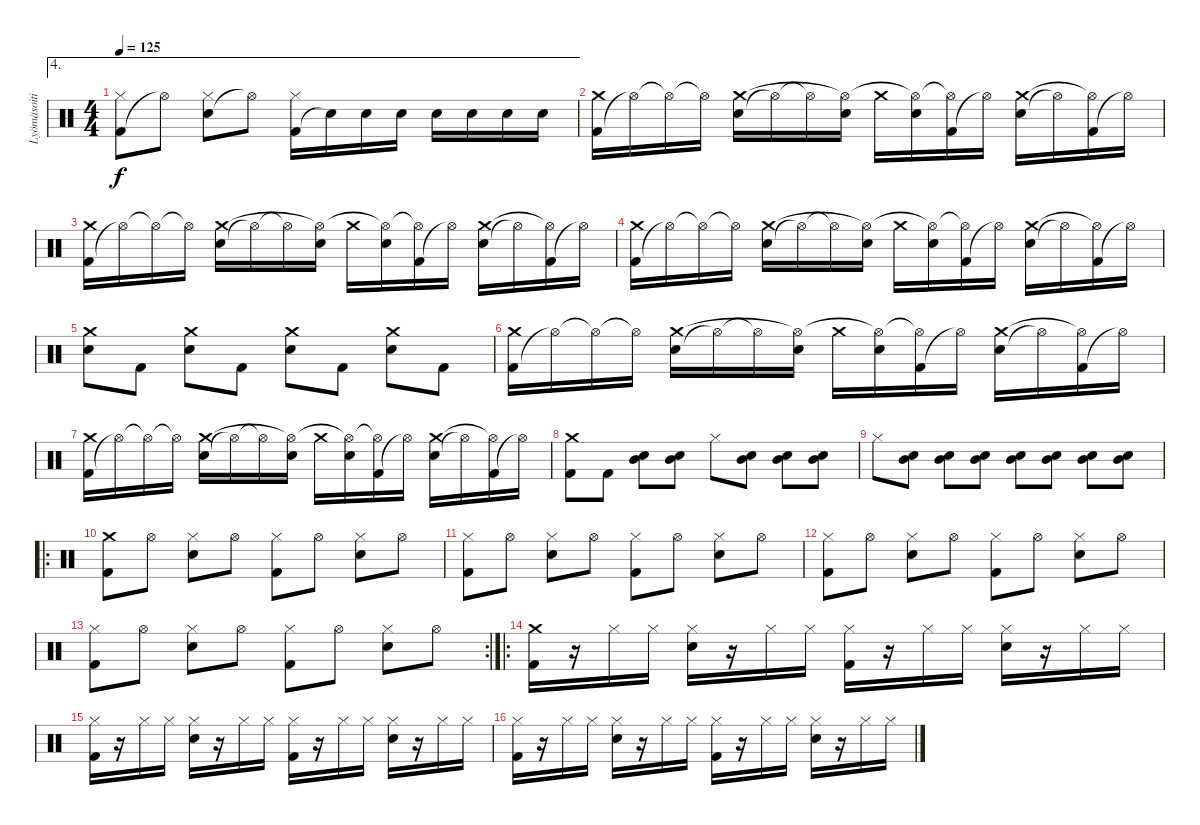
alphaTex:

\track ("Lyömäsoitin" "Lyömäsoiti") {instrument percussion}
\staff {score}
\articulation defaults
\ae 4
\ts (4 4)
\tempo 125
\clef neutral
\ks c
("Kick (hit) 2" "Hi-Hat (closed)").8{dy f} "Hi-Hat (open)"{t}.8 ("Electric Snare (hit)" "Hi-Hat (closed)").8 "Hi-Hat (open)"{t}.8 ("Kick (hit) 2" "Hi-Hat (closed)").16 "Electric Snare (hit)"{t}.16 "Electric Snare (hit)".16 "Electric Snare (hit)".16 "Electric Snare (hit)".16 "Electric Snare (hit)".16 "Electric Snare (hit)".16 "Electric Snare (hit)".16 |
("Kick (hit) 2" "Crash medium (hit)").16 "Hi-Hat (open)"{t}.16 "Hi-Hat (open)"{t}.16 "Hi-Hat (open)"{t}.16 ("Electric Snare (hit)" "Crash medium (hit)").16 "Hi-Hat (open)"{t}.16 "Hi-Hat (open)"{t}.16 ("Electric Snare (hit)" "Hi-Hat (open)"{t}).16 "Crash medium (hit)".16 ("Electric Snare (hit)" "Hi-Hat (open)"{t}).16 ("Kick (hit) 2" "Hi-Hat (open)"{t}).16 "Hi-Hat (open)"{t}.16 ("Electric Snare (hit)" "Crash medium (hit)").16 "Hi-Hat (open)"{t}.16 ("Kick (hit) 2" "Hi-Hat (open)"{t}).16 "Hi-Hat (open)"{t}.16 |
("Kick (hit) 2" "Crash medium (hit)").16 "Hi-Hat (open)"{t}.16 "Hi-Hat (open)"{t}.16 "Hi-Hat (open)"{t}.16 ("Electric Snare (hit)" "Crash medium (hit)").16 "Hi-Hat (open)"{t}.16 "Hi-Hat (open)"{t}.16 ("Electric Snare (hit)" "Hi-Hat (open)"{t}).16 "Crash medium (hit)".16 ("Electric Snare (hit)" "Hi-Hat (open)"{t}).16 ("Kick (hit) 2" "Hi-Hat (open)"{t}).16 "Hi-Hat (open)"{t}.16 ("Electric Snare (hit)" "Crash medium (hit)").16 "Hi-Hat (open)"{t}.16 ("Kick (hit) 2" "Hi-Hat (open)"{t}).16 "Hi-Hat (open)"{t}.16 |
("Kick (hit) 2" "Crash medium (hit)").16 "Hi-Hat (open)"{t}.16 "Hi-Hat (open)"{t}.16 "Hi-Hat (open)"{t}.16 ("Electric Snare (hit)" "Crash medium (hit)").16 "Hi-Hat (open)"{t}.16 "Hi-Hat (open)"{t}.16 ("Electric Snare (hit)" "Hi-Hat (open)"{t}).16 "Crash medium (hit)".16 ("Electric Snare (hit)" "Hi-Hat (open)"{t}).16 ("Kick (hit) 2" "Hi-Hat (open)"{t}).16 "Hi-Hat (open)"{t}.16 ("Electric Snare (hit)" "Crash medium (hit)").16 "Hi-Hat (open)"{t}.16 ("Kick (hit) 2" "Hi-Hat (open)"{t}).16 "Hi-Hat (open)"{t}.16 |
("Crash medium (hit)" "Electric Snare (hit)").8 "Kick (hit) 2".8 ("Crash medium (hit)" "Electric Snare (hit)").8 "Kick (hit) 2".8 ("Crash medium (hit)" "Electric Snare (hit)").8 "Kick (hit) 2".8 ("Crash medium (hit)" "Electric Snare (hit)").8 "Kick (hit) 2".8 |
("Kick (hit) 2" "Crash medium (hit)").16 "Hi-Hat (open)"{t}.16 "Hi-Hat (open)"{t}.16 "Hi-Hat (open)"{t}.16 ("Electric Snare (hit)" "Crash medium (hit)").16 "Hi-Hat (open)"{t}.16 "Hi-Hat (open)"{t}.16 ("Electric Snare (hit)" "Hi-Hat (open)"{t}).16 "Crash medium (hit)".16 ("Electric Snare (hit)" "Hi-Hat (open)"{t}).16 ("Kick (hit) 2" "Hi-Hat (open)"{t}).16 "Hi-Hat (open)"{t}.16 ("Electric Snare (hit)" "Crash medium (hit)").16 "Hi-Hat (open)"{t}.16 ("Kick (hit) 2" "Hi-Hat (open)"{t}).16 "Hi-Hat (open)"{t}.16 |
("Kick (hit) 2" "Crash medium (hit)").16 "Hi-Hat (open)"{t}.16 "Hi-Hat (open)"{t}.16 "Hi-Hat (open)"{t}.16 ("Electric Snare (hit)" "Crash medium (hit)").16 "Hi-Hat (open)"{t}.16 "Hi-Hat (open)"{t}.16 ("Electric Snare (hit)" "Hi-Hat (open)"{t}).16 "Crash medium (hit)".16 ("Electric Snare (hit)" "Hi-Hat (open)"{t}).16 ("Kick (hit) 2" "Hi-Hat (open)"{t}).16 "Hi-Hat (open)"{t}.16 ("Electric Snare (hit)" "Crash medium (hit)").16 "Hi-Hat (open)"{t}.16 ("Kick (hit) 2" "Hi-Hat (open)"{t}).16 "Hi-Hat (open)"{t}.16 |
("Kick (hit) 2" "Crash medium (hit)").8 "Kick (hit) 2".8 ("Electric Snare (hit)" "Mid Tom (hit)").8 ("Electric Snare (hit)" "Mid Tom (hit)").8 "Hi-Hat (closed)".8 ("Electric Snare (hit)" "Mid Tom (hit)").8 ("Electric Snare (hit)" "Mid Tom (hit)").8 ("Electric Snare (hit)" "Mid Tom (hit)").8 |
"Hi-Hat (closed)".8 ("Electric Snare (hit)" "Mid Tom (hit)").8 ("Electric Snare (hit)" "Mid Tom (hit)").8 ("Electric Snare (hit)" "Mid Tom (hit)").8 ("Electric Snare (hit)" "Mid Tom (hit)").8 ("Electric Snare (hit)" "Mid Tom (hit)").8 ("Electric Snare (hit)" "Mid Tom (hit)").8 ("Electric Snare (hit)" "Mid Tom (hit)").8 |
\ro
("Kick (hit) 2" "Crash medium (hit)").8 "Hi-Hat (open)".8 ("Electric Snare (hit)" "Hi-Hat (closed)").8 "Hi-Hat (open)".8 ("Kick (hit) 2" "Hi-Hat (closed)").8 "Hi-Hat (open)".8 ("Electric Snare (hit)" "Hi-Hat (closed)").8 "Hi-Hat (open)".8 |
("Kick (hit) 2" "Hi-Hat (closed)").8 "Hi-Hat (open)".8 ("Electric Snare (hit)" "Hi-Hat (closed)").8 "Hi-Hat (open)".8 ("Kick (hit) 2" "Hi-Hat (closed)").8 "Hi-Hat (open)".8 ("Electric Snare (hit)" "Hi-Hat (closed)").8 "Hi-Hat (open)".8 |
("Kick (hit) 2" "Hi-Hat (closed)").8 "Hi-Hat (open)".8 ("Electric Snare (hit)" "Hi-Hat (closed)").8 "Hi-Hat (open)".8 ("Kick (hit) 2" "Hi-Hat (closed)").8 "Hi-Hat (open)".8 ("Electric Snare (hit)" "Hi-Hat (closed)").8 "Hi-Hat (open)".8 |
\rc 2
("Kick (hit) 2" "Hi-Hat (closed)").8 "Hi-Hat (open)".8 ("Electric Snare (hit)" "Hi-Hat (closed)").8 "Hi-Hat (open)".8 ("Kick (hit) 2" "Hi-Hat (closed)").8 "Hi-Hat (open)".8 ("Electric Snare (hit)" "Hi-Hat (closed)").8 "Hi-Hat (open)".8 |
\ro
("Kick (hit) 2" "Crash medium (hit)").16 r.16 "Hi-Hat (closed)".16 "Hi-Hat (closed)".16 ("Electric Snare (hit)" "Hi-Hat (closed)").16 r.16 "Hi-Hat (closed)".16 "Hi-Hat (closed)".16 ("Kick (hit) 2" "Hi-Hat (closed)").16 r.16 "Hi-Hat (closed)".16 "Hi-Hat (closed)".16 ("Electric Snare (hit)" "Hi-Hat (closed)").16 r.16 "Hi-Hat (closed)".16 "Hi-Hat (closed)".16 |
("Kick (hit) 2" "Hi-Hat (closed)").16 r.16 "Hi-Hat (closed)".16 "Hi-Hat (closed)".16 ("Electric Snare (hit)" "Hi-Hat (closed)").16 r.16 "Hi-Hat (closed)".16 "Hi-Hat (closed)".16 ("Kick (hit) 2" "Hi-Hat (closed)").16 r.16 "Hi-Hat (closed)".16 "Hi-Hat (closed)".16 ("Electric Snare (hit)" "Hi-Hat (closed)").16 r.16 "Hi-Hat (closed)".16 "Hi-Hat (closed)".16 |
("Kick (hit) 2" "Hi-Hat (closed)").16 r.16 "Hi-Hat (closed)".16 "Hi-Hat (closed)".16 ("Electric Snare (hit)" "Hi-Hat (closed)").16 r.16 "Hi-Hat (closed)".16 "Hi-Hat (closed)".16 ("Kick (hit) 2" "Hi-Hat (closed)").16 r.16 "Hi-Hat (closed)".16 "Hi-Hat (closed)".16 ("Electric Snare (hit)" "Hi-Hat (closed)").16 r.16 "Hi-Hat (closed)".16 "Hi-Hat (closed)".16
